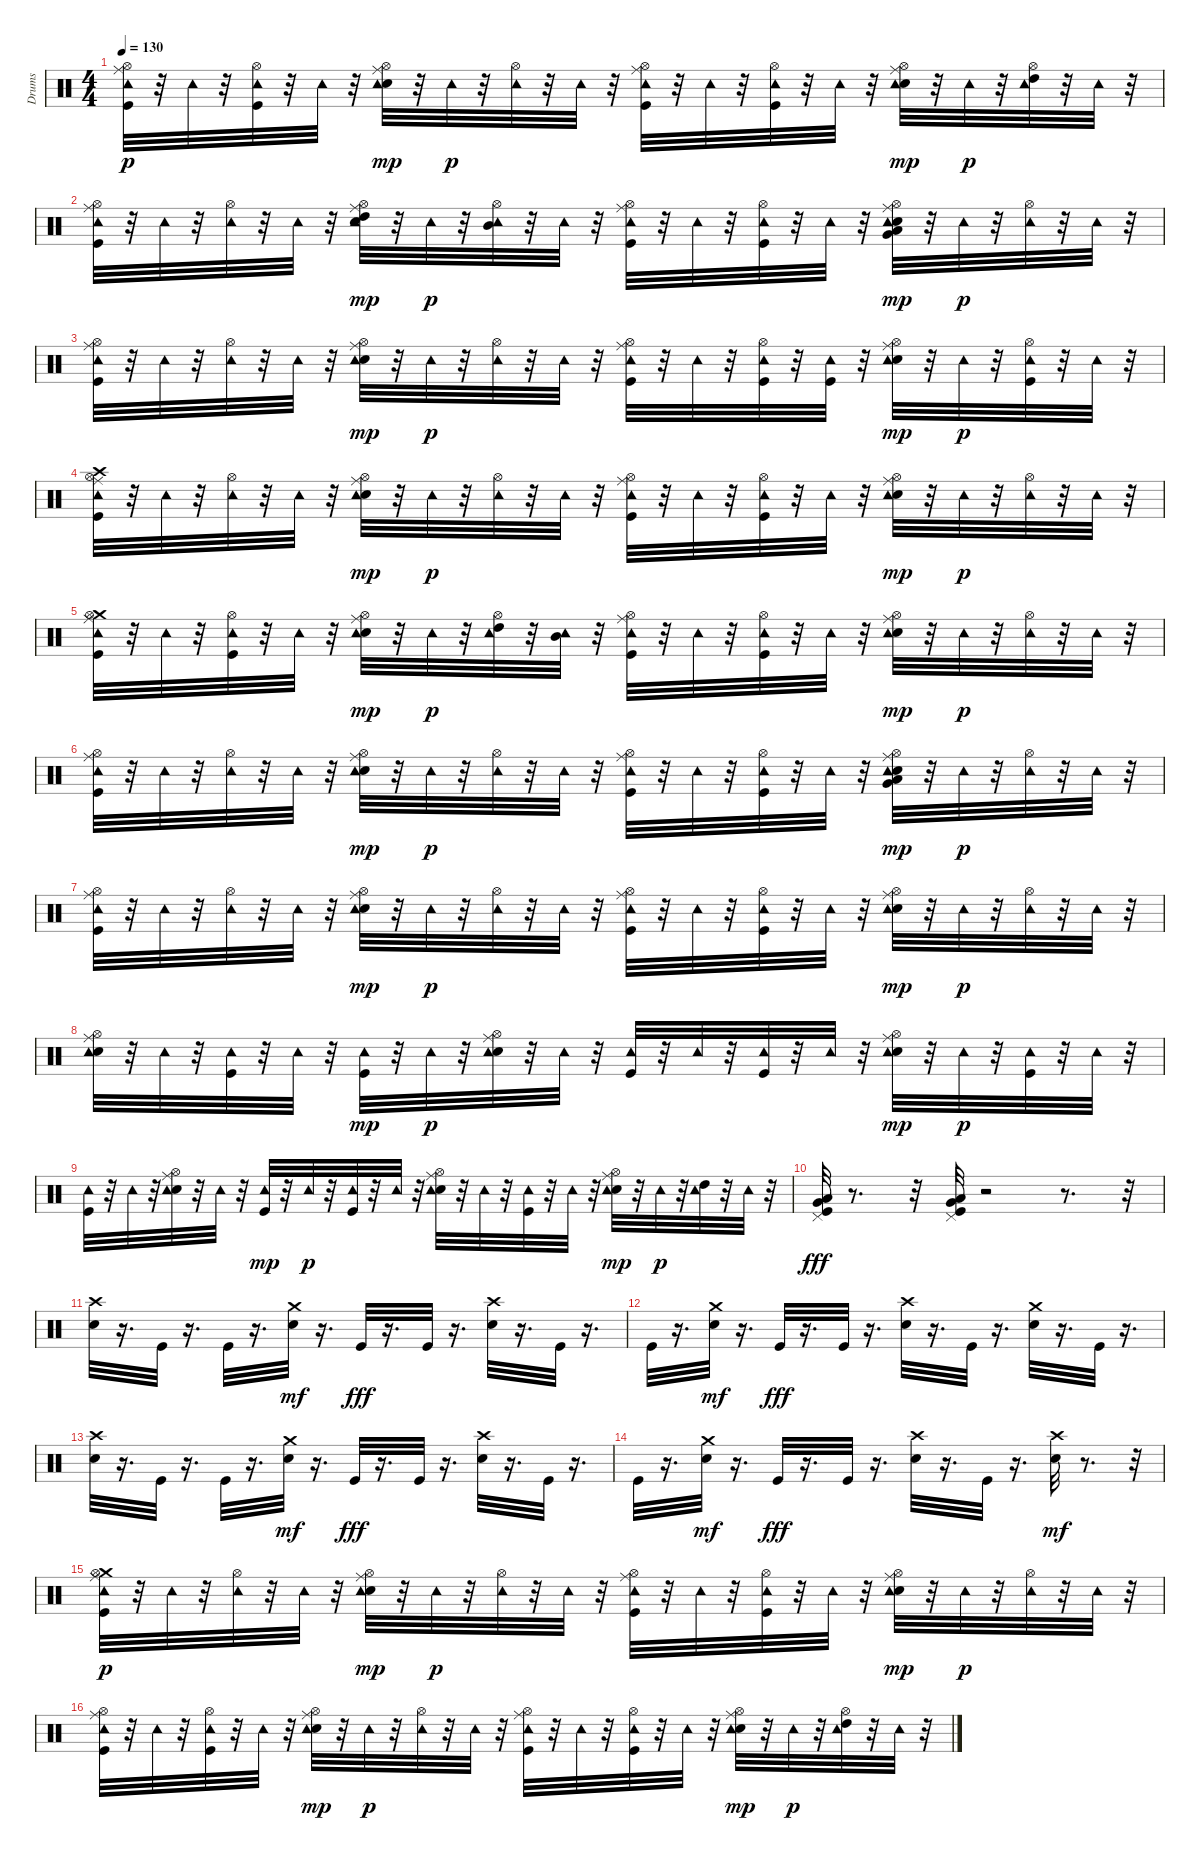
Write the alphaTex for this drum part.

\track ("Drums" "Drums") {instrument percussion}
\staff {score}
\articulation defaults
\ts (4 4)
\tempo 130
\clef neutral
\ks c
("Ride (middle)" "Kick (hit)" "Hi-Hat (open)" "Tambourine (hit)").32{dy p} r.32 "Tambourine (hit)".32 r.32 ("Hi-Hat (open)" "Kick (hit)" "Tambourine (hit)").32 r.32 "Tambourine (hit)".32 r.32 ("Ride (middle)" "Electric Snare (hit)" "Hi-Hat (open)" "Tambourine (hit)").32{dy mp} r.32 "Tambourine (hit)".32{dy p} r.32 ("Hi-Hat (open)" "Tambourine (hit)").32 r.32 "Tambourine (hit)".32 r.32 ("Ride (middle)" "Kick (hit)" "Hi-Hat (open)" "Tambourine (hit)").32 r.32 "Tambourine (hit)".32 r.32 ("Hi-Hat (open)" "Kick (hit)" "Tambourine (hit)").32 r.32 "Tambourine (hit)".32 r.32 ("Ride (middle)" "Electric Snare (hit)" "Hi-Hat (open)" "Tambourine (hit)").32{dy mp} r.32 "Tambourine (hit)".32{dy p} r.32 ("High Tom (hit)" "Hi-Hat (open)" "Tambourine (hit)").32 r.32 "Tambourine (hit)".32 r.32 |
("Ride (middle)" "Kick (hit)" "Hi-Hat (open)" "Tambourine (hit)").32 r.32 "Tambourine (hit)".32 r.32 ("Hi-Hat (open)" "Tambourine (hit)").32 r.32 "Tambourine (hit)".32 r.32 ("High Tom (hit)" "Ride (middle)" "Electric Snare (hit)" "Hi-Hat (open)" "Tambourine (hit)").32{dy mp} r.32 "Tambourine (hit)".32{dy p} r.32 ("Mid Tom (hit)" "Hi-Hat (open)" "Tambourine (hit)").32 r.32 "Tambourine (hit)".32 r.32 ("Ride (middle)" "Kick (hit)" "Hi-Hat (open)" "Tambourine (hit)").32 r.32 "Tambourine (hit)".32 r.32 ("Kick (hit)" "Hi-Hat (open)" "Tambourine (hit)").32 r.32 "Tambourine (hit)".32 r.32 ("Very Low Tom (hit)" "Low Tom (hit)" "Ride (middle)" "Electric Snare (hit)" "Hi-Hat (open)" "Tambourine (hit)").32{dy mp} r.32 "Tambourine (hit)".32{dy p} r.32 ("Hi-Hat (open)" "Tambourine (hit)").32 r.32 "Tambourine (hit)".32 r.32 |
("Ride (middle)" "Kick (hit)" "Hi-Hat (open)" "Tambourine (hit)").32 r.32 "Tambourine (hit)".32 r.32 ("Hi-Hat (open)" "Tambourine (hit)").32 r.32 "Tambourine (hit)".32 r.32 ("Ride (middle)" "Electric Snare (hit)" "Hi-Hat (open)" "Tambourine (hit)").32{dy mp} r.32 "Tambourine (hit)".32{dy p} r.32 ("Hi-Hat (open)" "Tambourine (hit)").32 r.32 "Tambourine (hit)".32 r.32 ("Kick (hit)" "Ride (middle)" "Hi-Hat (open)" "Tambourine (hit)").32 r.32 "Tambourine (hit)".32 r.32 ("Hi-Hat (open)" "Kick (hit)" "Tambourine (hit)").32 r.32 ("Kick (hit)" "Tambourine (hit)").32 r.32 ("Ride (middle)" "Electric Snare (hit)" "Hi-Hat (open)" "Tambourine (hit)").32{dy mp} r.32 "Tambourine (hit)".32{dy p} r.32 ("Hi-Hat (open)" "Kick (hit)" "Tambourine (hit)").32 r.32 "Tambourine (hit)".32 r.32 |
("Crash high (hit)" "Ride (middle)" "Kick (hit)" "Hi-Hat (open)" "Tambourine (hit)").32 r.32 "Tambourine (hit)".32 r.32 ("Hi-Hat (open)" "Tambourine (hit)").32 r.32 "Tambourine (hit)".32 r.32 ("Ride (middle)" "Electric Snare (hit)" "Hi-Hat (open)" "Tambourine (hit)").32{dy mp} r.32 "Tambourine (hit)".32{dy p} r.32 ("Hi-Hat (open)" "Tambourine (hit)").32 r.32 "Tambourine (hit)".32 r.32 ("Ride (middle)" "Kick (hit)" "Hi-Hat (open)" "Tambourine (hit)").32 r.32 "Tambourine (hit)".32 r.32 ("Kick (hit)" "Hi-Hat (open)" "Tambourine (hit)").32 r.32 "Tambourine (hit)".32 r.32 ("Ride (middle)" "Electric Snare (hit)" "Hi-Hat (open)" "Tambourine (hit)").32{dy mp} r.32 "Tambourine (hit)".32{dy p} r.32 ("Hi-Hat (open)" "Tambourine (hit)").32 r.32 "Tambourine (hit)".32 r.32 |
("Crash medium (hit)" "Ride (middle)" "Kick (hit)" "Hi-Hat (open)" "Tambourine (hit)").32 r.32 "Tambourine (hit)".32 r.32 ("Hi-Hat (open)" "Kick (hit)" "Tambourine (hit)").32 r.32 "Tambourine (hit)".32 r.32 ("Ride (middle)" "Electric Snare (hit)" "Hi-Hat (open)" "Tambourine (hit)").32{dy mp} r.32 "Tambourine (hit)".32{dy p} r.32 ("High Tom (hit)" "Hi-Hat (open)" "Tambourine (hit)").32 r.32 ("Mid Tom (hit)" "Tambourine (hit)").32 r.32 ("Ride (middle)" "Kick (hit)" "Hi-Hat (open)" "Tambourine (hit)").32 r.32 "Tambourine (hit)".32 r.32 ("Hi-Hat (open)" "Kick (hit)" "Tambourine (hit)").32 r.32 "Tambourine (hit)".32 r.32 ("Ride (middle)" "Electric Snare (hit)" "Hi-Hat (open)" "Tambourine (hit)").32{dy mp} r.32 "Tambourine (hit)".32{dy p} r.32 ("Hi-Hat (open)" "Tambourine (hit)").32 r.32 "Tambourine (hit)".32 r.32 |
("Ride (middle)" "Kick (hit)" "Hi-Hat (open)" "Tambourine (hit)").32 r.32 "Tambourine (hit)".32 r.32 ("Hi-Hat (open)" "Tambourine (hit)").32 r.32 "Tambourine (hit)".32 r.32 ("Ride (middle)" "Electric Snare (hit)" "Hi-Hat (open)" "Tambourine (hit)").32{dy mp} r.32 "Tambourine (hit)".32{dy p} r.32 ("Hi-Hat (open)" "Tambourine (hit)").32 r.32 "Tambourine (hit)".32 r.32 ("Ride (middle)" "Kick (hit)" "Hi-Hat (open)" "Tambourine (hit)").32 r.32 "Tambourine (hit)".32 r.32 ("Kick (hit)" "Hi-Hat (open)" "Tambourine (hit)").32 r.32 "Tambourine (hit)".32 r.32 ("Very Low Tom (hit)" "Low Tom (hit)" "Ride (middle)" "Electric Snare (hit)" "Hi-Hat (open)" "Tambourine (hit)").32{dy mp} r.32 "Tambourine (hit)".32{dy p} r.32 ("Hi-Hat (open)" "Tambourine (hit)").32 r.32 "Tambourine (hit)".32 r.32 |
("Ride (middle)" "Kick (hit)" "Hi-Hat (open)" "Tambourine (hit)").32 r.32 "Tambourine (hit)".32 r.32 ("Hi-Hat (open)" "Tambourine (hit)").32 r.32 "Tambourine (hit)".32 r.32 ("Ride (middle)" "Electric Snare (hit)" "Hi-Hat (open)" "Tambourine (hit)").32{dy mp} r.32 "Tambourine (hit)".32{dy p} r.32 ("Hi-Hat (open)" "Tambourine (hit)").32 r.32 "Tambourine (hit)".32 r.32 ("Kick (hit)" "Ride (middle)" "Hi-Hat (open)" "Tambourine (hit)").32 r.32 "Tambourine (hit)".32 r.32 ("Hi-Hat (open)" "Kick (hit)" "Tambourine (hit)").32 r.32 "Tambourine (hit)".32 r.32 ("Ride (middle)" "Electric Snare (hit)" "Hi-Hat (open)" "Tambourine (hit)").32{dy mp} r.32 "Tambourine (hit)".32{dy p} r.32 ("Hi-Hat (open)" "Tambourine (hit)").32 r.32 "Tambourine (hit)".32 r.32 |
("Electric Snare (hit)" "Ride (middle)" "Hi-Hat (open)" "Tambourine (hit)").32 r.32 "Tambourine (hit)".32 r.32 ("Kick (hit)" "Tambourine (hit)").32 r.32 "Tambourine (hit)".32 r.32 ("Kick (hit)" "Tambourine (hit)").32{dy mp} r.32 "Tambourine (hit)".32{dy p} r.32 ("Ride (middle)" "Electric Snare (hit)" "Hi-Hat (open)" "Tambourine (hit)").32 r.32 "Tambourine (hit)".32 r.32 ("Kick (hit)" "Tambourine (hit)").32 r.32 "Tambourine (hit)".32 r.32 ("Kick (hit)" "Tambourine (hit)").32 r.32 "Tambourine (hit)".32 r.32 ("Ride (middle)" "Electric Snare (hit)" "Hi-Hat (open)" "Tambourine (hit)").32{dy mp} r.32 "Tambourine (hit)".32{dy p} r.32 ("Kick (hit)" "Tambourine (hit)").32 r.32 "Tambourine (hit)".32 r.32 |
("Kick (hit)" "Tambourine (hit)").32 r.32 "Tambourine (hit)".32 r.32 ("Ride (middle)" "Electric Snare (hit)" "Hi-Hat (open)" "Tambourine (hit)").32 r.32 "Tambourine (hit)".32 r.32 ("Kick (hit)" "Tambourine (hit)").32{dy mp} r.32 "Tambourine (hit)".32{dy p} r.32 ("Kick (hit)" "Tambourine (hit)").32 r.32 "Tambourine (hit)".32 r.32 ("Electric Snare (hit)" "Ride (middle)" "Hi-Hat (open)" "Tambourine (hit)").32 r.32 "Tambourine (hit)".32 r.32 ("Kick (hit)" "Tambourine (hit)").32 r.32 "Tambourine (hit)".32 r.32 ("Ride (middle)" "Electric Snare (hit)" "Hi-Hat (open)" "Tambourine (hit)").32{dy mp} r.32 "Tambourine (hit)".32{dy p} r.32 ("High Tom (hit)" "Tambourine (hit)").32 r.32 "Tambourine (hit)".32 r.32 |
("Pedal Hi-Hat (hit)" "Low Floor Tom (hit)" "Very Low Tom (hit)" "Kick (hit)").32{dy fff} r.8{d} r.32 ("Pedal Hi-Hat (hit)" "Low Floor Tom (hit)" "Very Low Tom (hit)" "Kick (hit)").32 r.2 r.8{d} r.32 |
("Crash high (hit)" "Electric Snare (hit)").32 r.16{d} "Kick (hit)".32 r.16{d} "Kick (hit)".32 r.16{d} ("Electric Snare (hit)" "Crash medium (hit)").32{dy mf} r.16{d} "Kick (hit)".32{dy fff} r.16{d} "Kick (hit)".32 r.16{d} ("Crash high (hit)" "Electric Snare (hit)").32 r.16{d} "Kick (hit)".32 r.16{d} |
"Kick (hit)".32 r.16{d} ("Electric Snare (hit)" "Crash medium (hit)").32{dy mf} r.16{d} "Kick (hit)".32{dy fff} r.16{d} "Kick (hit)".32 r.16{d} ("Crash high (hit)" "Electric Snare (hit)").32 r.16{d} "Kick (hit)".32 r.16{d} ("Crash medium (hit)" "Electric Snare (hit)").32 r.16{d} "Kick (hit)".32 r.16{d} |
("Crash high (hit)" "Electric Snare (hit)").32 r.16{d} "Kick (hit)".32 r.16{d} "Kick (hit)".32 r.16{d} ("Electric Snare (hit)" "Crash medium (hit)").32{dy mf} r.16{d} "Kick (hit)".32{dy fff} r.16{d} "Kick (hit)".32 r.16{d} ("Crash high (hit)" "Electric Snare (hit)").32 r.16{d} "Kick (hit)".32 r.16{d} |
"Kick (hit)".32 r.16{d} ("Electric Snare (hit)" "Crash medium (hit)").32{dy mf} r.16{d} "Kick (hit)".32{dy fff} r.16{d} "Kick (hit)".32 r.16{d} ("Crash high (hit)" "Electric Snare (hit)").32 r.16{d} "Kick (hit)".32 r.16{d} ("Electric Snare (hit)" "Crash high (hit)").32{dy mf} r.8{d} r.32 |
("Ride (middle)" "Crash medium (hit)" "Kick (hit)" "Hi-Hat (open)" "Tambourine (hit)").32{dy p} r.32 "Tambourine (hit)".32 r.32 ("Hi-Hat (open)" "Tambourine (hit)").32 r.32 "Tambourine (hit)".32 r.32 ("Ride (middle)" "Electric Snare (hit)" "Hi-Hat (open)" "Tambourine (hit)").32{dy mp} r.32 "Tambourine (hit)".32{dy p} r.32 ("Hi-Hat (open)" "Tambourine (hit)").32 r.32 "Tambourine (hit)".32 r.32 ("Ride (middle)" "Kick (hit)" "Hi-Hat (open)" "Tambourine (hit)").32 r.32 "Tambourine (hit)".32 r.32 ("Kick (hit)" "Hi-Hat (open)" "Tambourine (hit)").32 r.32 "Tambourine (hit)".32 r.32 ("Ride (middle)" "Electric Snare (hit)" "Hi-Hat (open)" "Tambourine (hit)").32{dy mp} r.32 "Tambourine (hit)".32{dy p} r.32 ("Hi-Hat (open)" "Tambourine (hit)").32 r.32 "Tambourine (hit)".32 r.32 |
("Ride (middle)" "Kick (hit)" "Hi-Hat (open)" "Tambourine (hit)").32 r.32 "Tambourine (hit)".32 r.32 ("Hi-Hat (open)" "Kick (hit)" "Tambourine (hit)").32 r.32 "Tambourine (hit)".32 r.32 ("Ride (middle)" "Electric Snare (hit)" "Hi-Hat (open)" "Tambourine (hit)").32{dy mp} r.32 "Tambourine (hit)".32{dy p} r.32 ("Hi-Hat (open)" "Tambourine (hit)").32 r.32 "Tambourine (hit)".32 r.32 ("Ride (middle)" "Kick (hit)" "Hi-Hat (open)" "Tambourine (hit)").32 r.32 "Tambourine (hit)".32 r.32 ("Hi-Hat (open)" "Kick (hit)" "Tambourine (hit)").32 r.32 "Tambourine (hit)".32 r.32 ("Ride (middle)" "Electric Snare (hit)" "Hi-Hat (open)" "Tambourine (hit)").32{dy mp} r.32 "Tambourine (hit)".32{dy p} r.32 ("High Tom (hit)" "Hi-Hat (open)" "Tambourine (hit)").32 r.32 "Tambourine (hit)".32 r.32
